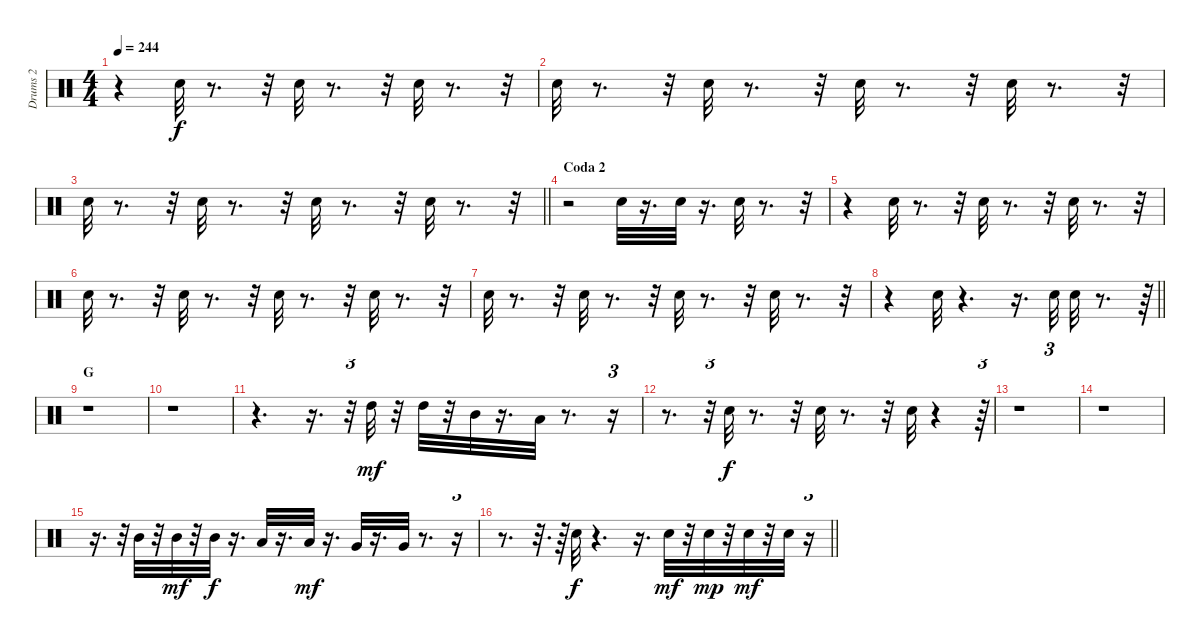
\track ("Drums 2" "Drums 2") {instrument percussion}
\staff {score}
\articulation defaults
\ts (4 4)
\tempo 244
\clef neutral
\ks c
r.4{dy f} "Electric Snare (hit)".32 r.8{d} r.32 "Electric Snare (hit)".32 r.8{d} r.32 "Electric Snare (hit)".32 r.8{d} r.32 |
"Electric Snare (hit)".32 r.8{d} r.32 "Electric Snare (hit)".32 r.8{d} r.32 "Electric Snare (hit)".32 r.8{d} r.32 "Electric Snare (hit)".32 r.8{d} r.32 |
\barLineRight lightlight "Electric Snare (hit)".32
r.8{d} r.32 "Electric Snare (hit)".32 r.8{d} r.32 "Electric Snare (hit)".32 r.8{d} r.32 "Electric Snare (hit)".32 r.8{d} r.32 |
\section ("" "Coda 2")
r.2 "Electric Snare (hit)".32 r.16{d} "Electric Snare (hit)".32 r.16{d} "Electric Snare (hit)".32 r.8{d} r.32 |
r.4 "Electric Snare (hit)".32 r.8{d} r.32 "Electric Snare (hit)".32 r.8{d} r.32 "Electric Snare (hit)".32 r.8{d} r.32 |
"Electric Snare (hit)".32 r.8{d} r.32 "Electric Snare (hit)".32 r.8{d} r.32 "Electric Snare (hit)".32 r.8{d} r.32 "Electric Snare (hit)".32 r.8{d} r.32 |
"Electric Snare (hit)".32 r.8{d} r.32 "Electric Snare (hit)".32 r.8{d} r.32 "Electric Snare (hit)".32 r.8{d} r.32 "Electric Snare (hit)".32 r.8{d} r.32 |
\barLineRight lightlight
r.4 "Electric Snare (hit)".32 r.4{d} r.16{d} "Electric Snare (hit)".32{tu (3 2)} "Electric Snare (hit)".32 r.8{d} r.64{tu (3 2)} |
\section ("" "G")
r.1 |
r.1 |
r.4{d} r.16{d} r.32{tu (3 2)} "High Tom (hit)".32{dy mf} r.32 "High Tom (hit)".32 r.32 "Mid Tom (hit)".32 r.16{d} "Low Tom (hit)".32 r.8{d} r.16{tu (3 2)} |
r.8{d} r.32{tu (3 2)} "Electric Snare (hit)".32{dy f} r.8{d} r.32 "Electric Snare (hit)".32 r.8{d} r.32 "Electric Snare (hit)".32 r.4 r.64{tu (3 2)} |
r.1 |
r.1 |
r.16{d} r.32{tu (3 2)} "Mid Tom (hit)".32 r.32 "Mid Tom (hit)".32{dy mf} r.32 "Mid Tom (hit)".32{dy f} r.16{d} "Low Tom (hit)".32 r.16{d} "Low Tom (hit)".32{dy mf} r.16{d} "Very Low Tom (hit)".32 r.16{d} "Very Low Tom (hit)".32 r.8{d} r.16{tu (3 2)} |
\barLineRight lightlight
r.8{d} r.32{d} r.64 "Electric Snare (hit)".32{dy f} r.4{d} r.16{d} "Electric Snare (hit)".32{dy mf} r.32 "Electric Snare (hit)".32{dy mp} r.32 "Electric Snare (hit)".32{dy mf} r.32 "Electric Snare (hit)".32 r.16{tu (3 2)}
